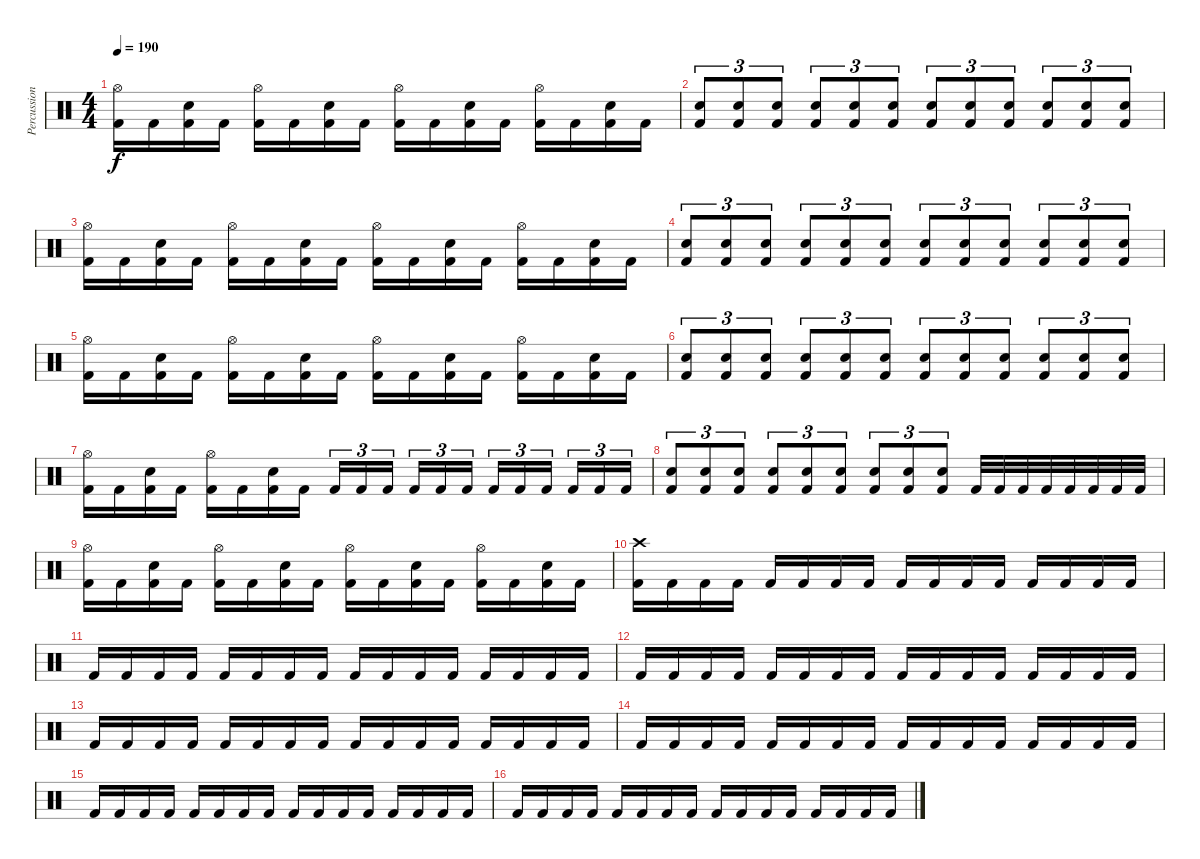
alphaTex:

\track ("Percussion" "Percussion") {instrument percussion}
\staff {score}
\articulation defaults
\ts (4 4)
\tempo 190
\clef neutral
\ks c
("Hi-Hat (open)" "Kick (hit) 2").16{dy f} "Kick (hit) 2".16 ("Snare (hit) 2" "Kick (hit) 2").16 "Kick (hit) 2".16 ("Hi-Hat (open)" "Kick (hit) 2").16 "Kick (hit) 2".16 ("Snare (hit) 2" "Kick (hit) 2").16 "Kick (hit) 2".16 ("Hi-Hat (open)" "Kick (hit) 2").16 "Kick (hit) 2".16 ("Snare (hit) 2" "Kick (hit) 2").16 "Kick (hit) 2".16 ("Hi-Hat (open)" "Kick (hit) 2").16 "Kick (hit) 2".16 ("Snare (hit) 2" "Kick (hit) 2").16 "Kick (hit) 2".16 |
("Snare (hit) 2" "Kick (hit) 2").8{tu (3 2)} ("Snare (hit) 2" "Kick (hit) 2").8{tu (3 2)} ("Snare (hit) 2" "Kick (hit) 2").8{tu (3 2)} ("Snare (hit) 2" "Kick (hit) 2").8{tu (3 2)} ("Snare (hit) 2" "Kick (hit) 2").8{tu (3 2)} ("Snare (hit) 2" "Kick (hit) 2").8{tu (3 2)} ("Snare (hit) 2" "Kick (hit) 2").8{tu (3 2)} ("Snare (hit) 2" "Kick (hit) 2").8{tu (3 2)} ("Snare (hit) 2" "Kick (hit) 2").8{tu (3 2)} ("Snare (hit) 2" "Kick (hit) 2").8{tu (3 2)} ("Snare (hit) 2" "Kick (hit) 2").8{tu (3 2)} ("Snare (hit) 2" "Kick (hit) 2").8{tu (3 2)} |
("Hi-Hat (open)" "Kick (hit) 2").16 "Kick (hit) 2".16 ("Snare (hit) 2" "Kick (hit) 2").16 "Kick (hit) 2".16 ("Hi-Hat (open)" "Kick (hit) 2").16 "Kick (hit) 2".16 ("Snare (hit) 2" "Kick (hit) 2").16 "Kick (hit) 2".16 ("Hi-Hat (open)" "Kick (hit) 2").16 "Kick (hit) 2".16 ("Snare (hit) 2" "Kick (hit) 2").16 "Kick (hit) 2".16 ("Hi-Hat (open)" "Kick (hit) 2").16 "Kick (hit) 2".16 ("Snare (hit) 2" "Kick (hit) 2").16 "Kick (hit) 2".16 |
("Snare (hit) 2" "Kick (hit) 2").8{tu (3 2)} ("Snare (hit) 2" "Kick (hit) 2").8{tu (3 2)} ("Snare (hit) 2" "Kick (hit) 2").8{tu (3 2)} ("Snare (hit) 2" "Kick (hit) 2").8{tu (3 2)} ("Snare (hit) 2" "Kick (hit) 2").8{tu (3 2)} ("Snare (hit) 2" "Kick (hit) 2").8{tu (3 2)} ("Snare (hit) 2" "Kick (hit) 2").8{tu (3 2)} ("Snare (hit) 2" "Kick (hit) 2").8{tu (3 2)} ("Snare (hit) 2" "Kick (hit) 2").8{tu (3 2)} ("Snare (hit) 2" "Kick (hit) 2").8{tu (3 2)} ("Snare (hit) 2" "Kick (hit) 2").8{tu (3 2)} ("Snare (hit) 2" "Kick (hit) 2").8{tu (3 2)} |
("Hi-Hat (open)" "Kick (hit) 2").16 "Kick (hit) 2".16 ("Snare (hit) 2" "Kick (hit) 2").16 "Kick (hit) 2".16 ("Hi-Hat (open)" "Kick (hit) 2").16 "Kick (hit) 2".16 ("Snare (hit) 2" "Kick (hit) 2").16 "Kick (hit) 2".16 ("Hi-Hat (open)" "Kick (hit) 2").16 "Kick (hit) 2".16 ("Snare (hit) 2" "Kick (hit) 2").16 "Kick (hit) 2".16 ("Hi-Hat (open)" "Kick (hit) 2").16 "Kick (hit) 2".16 ("Snare (hit) 2" "Kick (hit) 2").16 "Kick (hit) 2".16 |
("Snare (hit) 2" "Kick (hit) 2").8{tu (3 2)} ("Snare (hit) 2" "Kick (hit) 2").8{tu (3 2)} ("Snare (hit) 2" "Kick (hit) 2").8{tu (3 2)} ("Snare (hit) 2" "Kick (hit) 2").8{tu (3 2)} ("Snare (hit) 2" "Kick (hit) 2").8{tu (3 2)} ("Snare (hit) 2" "Kick (hit) 2").8{tu (3 2)} ("Snare (hit) 2" "Kick (hit) 2").8{tu (3 2)} ("Snare (hit) 2" "Kick (hit) 2").8{tu (3 2)} ("Snare (hit) 2" "Kick (hit) 2").8{tu (3 2)} ("Snare (hit) 2" "Kick (hit) 2").8{tu (3 2)} ("Snare (hit) 2" "Kick (hit) 2").8{tu (3 2)} ("Snare (hit) 2" "Kick (hit) 2").8{tu (3 2)} |
("Hi-Hat (open)" "Kick (hit) 2").16 "Kick (hit) 2".16 ("Snare (hit) 2" "Kick (hit) 2").16 "Kick (hit) 2".16 ("Hi-Hat (open)" "Kick (hit) 2").16 "Kick (hit) 2".16 ("Snare (hit) 2" "Kick (hit) 2").16 "Kick (hit) 2".16 "Kick (hit) 2".16{tu (3 2)} "Kick (hit) 2".16{tu (3 2)} "Kick (hit) 2".16{tu (3 2)} "Kick (hit) 2".16{tu (3 2)} "Kick (hit) 2".16{tu (3 2)} "Kick (hit) 2".16{tu (3 2)} "Kick (hit) 2".16{tu (3 2)} "Kick (hit) 2".16{tu (3 2)} "Kick (hit) 2".16{tu (3 2)} "Kick (hit) 2".16{tu (3 2)} "Kick (hit) 2".16{tu (3 2)} "Kick (hit) 2".16{tu (3 2)} |
("Snare (hit) 2" "Kick (hit) 2").8{tu (3 2)} ("Snare (hit) 2" "Kick (hit) 2").8{tu (3 2)} ("Snare (hit) 2" "Kick (hit) 2").8{tu (3 2)} ("Snare (hit) 2" "Kick (hit) 2").8{tu (3 2)} ("Snare (hit) 2" "Kick (hit) 2").8{tu (3 2)} ("Snare (hit) 2" "Kick (hit) 2").8{tu (3 2)} ("Snare (hit) 2" "Kick (hit) 2").8{tu (3 2)} ("Snare (hit) 2" "Kick (hit) 2").8{tu (3 2)} ("Snare (hit) 2" "Kick (hit) 2").8{tu (3 2)} "Kick (hit) 2".32 "Kick (hit) 2".32 "Kick (hit) 2".32 "Kick (hit) 2".32 "Kick (hit) 2".32 "Kick (hit) 2".32 "Kick (hit) 2".32 "Kick (hit) 2".32 |
("Hi-Hat (open)" "Kick (hit) 2").16 "Kick (hit) 2".16 ("Snare (hit) 2" "Kick (hit) 2").16 "Kick (hit) 2".16 ("Hi-Hat (open)" "Kick (hit) 2").16 "Kick (hit) 2".16 ("Snare (hit) 2" "Kick (hit) 2").16 "Kick (hit) 2".16 ("Hi-Hat (open)" "Kick (hit) 2").16 "Kick (hit) 2".16 ("Snare (hit) 2" "Kick (hit) 2").16 "Kick (hit) 2".16 ("Hi-Hat (open)" "Kick (hit) 2").16 "Kick (hit) 2".16 ("Snare (hit) 2" "Kick (hit) 2").16 "Kick (hit) 2".16 |
("Crash high (hit)" "Kick (hit) 2").16 "Kick (hit) 2".16 "Kick (hit) 2".16 "Kick (hit) 2".16 "Kick (hit) 2".16 "Kick (hit) 2".16 "Kick (hit) 2".16 "Kick (hit) 2".16 "Kick (hit) 2".16 "Kick (hit) 2".16 "Kick (hit) 2".16 "Kick (hit) 2".16 "Kick (hit) 2".16 "Kick (hit) 2".16 "Kick (hit) 2".16 "Kick (hit) 2".16 |
"Kick (hit) 2".16 "Kick (hit) 2".16 "Kick (hit) 2".16 "Kick (hit) 2".16 "Kick (hit) 2".16 "Kick (hit) 2".16 "Kick (hit) 2".16 "Kick (hit) 2".16 "Kick (hit) 2".16 "Kick (hit) 2".16 "Kick (hit) 2".16 "Kick (hit) 2".16 "Kick (hit) 2".16 "Kick (hit) 2".16 "Kick (hit) 2".16 "Kick (hit) 2".16 |
"Kick (hit) 2".16 "Kick (hit) 2".16 "Kick (hit) 2".16 "Kick (hit) 2".16 "Kick (hit) 2".16 "Kick (hit) 2".16 "Kick (hit) 2".16 "Kick (hit) 2".16 "Kick (hit) 2".16 "Kick (hit) 2".16 "Kick (hit) 2".16 "Kick (hit) 2".16 "Kick (hit) 2".16 "Kick (hit) 2".16 "Kick (hit) 2".16 "Kick (hit) 2".16 |
"Kick (hit) 2".16 "Kick (hit) 2".16 "Kick (hit) 2".16 "Kick (hit) 2".16 "Kick (hit) 2".16 "Kick (hit) 2".16 "Kick (hit) 2".16 "Kick (hit) 2".16 "Kick (hit) 2".16 "Kick (hit) 2".16 "Kick (hit) 2".16 "Kick (hit) 2".16 "Kick (hit) 2".16 "Kick (hit) 2".16 "Kick (hit) 2".16 "Kick (hit) 2".16 |
"Kick (hit) 2".16 "Kick (hit) 2".16 "Kick (hit) 2".16 "Kick (hit) 2".16 "Kick (hit) 2".16 "Kick (hit) 2".16 "Kick (hit) 2".16 "Kick (hit) 2".16 "Kick (hit) 2".16 "Kick (hit) 2".16 "Kick (hit) 2".16 "Kick (hit) 2".16 "Kick (hit) 2".16 "Kick (hit) 2".16 "Kick (hit) 2".16 "Kick (hit) 2".16 |
"Kick (hit) 2".16 "Kick (hit) 2".16 "Kick (hit) 2".16 "Kick (hit) 2".16 "Kick (hit) 2".16 "Kick (hit) 2".16 "Kick (hit) 2".16 "Kick (hit) 2".16 "Kick (hit) 2".16 "Kick (hit) 2".16 "Kick (hit) 2".16 "Kick (hit) 2".16 "Kick (hit) 2".16 "Kick (hit) 2".16 "Kick (hit) 2".16 "Kick (hit) 2".16 |
"Kick (hit) 2".16 "Kick (hit) 2".16 "Kick (hit) 2".16 "Kick (hit) 2".16 "Kick (hit) 2".16 "Kick (hit) 2".16 "Kick (hit) 2".16 "Kick (hit) 2".16 "Kick (hit) 2".16 "Kick (hit) 2".16 "Kick (hit) 2".16 "Kick (hit) 2".16 "Kick (hit) 2".16 "Kick (hit) 2".16 "Kick (hit) 2".16 "Kick (hit) 2".16
